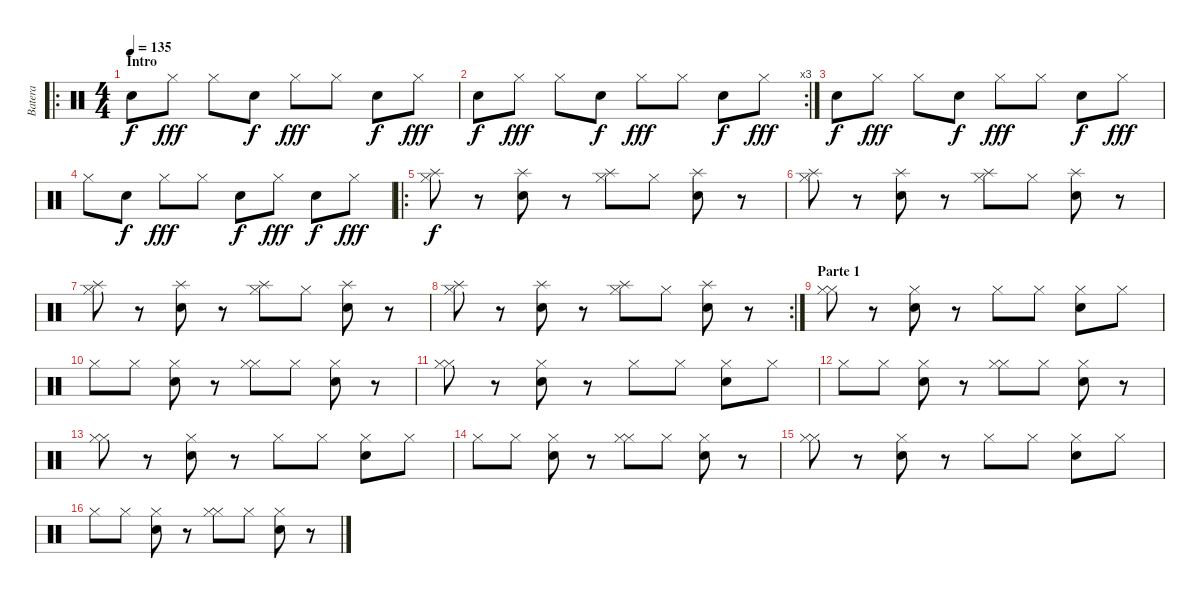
\track ("Batera" "Batera") {instrument percussion}
\staff {score}
\articulation defaults
\ro
\ts (4 4)
\section ("" "Intro")
\tempo 135
\clef neutral
\ks c "Electric Snare (hit)".8{dy f} "Hi-Hat (closed)".8{dy fff} "Hi-Hat (closed)".8 "Electric Snare (hit)".8{dy f} "Hi-Hat (closed)".8{dy fff} "Hi-Hat (closed)".8 "Electric Snare (hit)".8{dy f} "Hi-Hat (closed)".8{dy fff}
|
\rc 3 "Electric Snare (hit)".8{dy f} "Hi-Hat (closed)".8{dy fff} "Hi-Hat (closed)".8 "Electric Snare (hit)".8{dy f} "Hi-Hat (closed)".8{dy fff} "Hi-Hat (closed)".8 "Electric Snare (hit)".8{dy f} "Hi-Hat (closed)".8{dy fff}
|
"Electric Snare (hit)".8{dy f} "Hi-Hat (closed)".8{dy fff} "Hi-Hat (closed)".8 "Electric Snare (hit)".8{dy f} "Hi-Hat (closed)".8{dy fff} "Hi-Hat (closed)".8 "Electric Snare (hit)".8{dy f} "Hi-Hat (closed)".8{dy fff} |
"Hi-Hat (closed)".8 "Electric Snare (hit)".8{dy f} "Hi-Hat (closed)".8{dy fff} "Hi-Hat (closed)".8 "Electric Snare (hit)".8{dy f} "Hi-Hat (closed)".8{dy fff} "Electric Snare (hit)".8{dy f} "Hi-Hat (closed)".8{dy fff} |
\ro
("Splash (hit)" "Hi-Hat (closed)").8{dy f} r.8 ("Splash (hit)" "Electric Snare (hit)").8 r.8 ("Splash (hit)" "Hi-Hat (closed)").8 "Hi-Hat (closed)".8 ("Splash (hit)" "Electric Snare (hit)").8 r.8 |
("Splash (hit)" "Hi-Hat (closed)").8 r.8 ("Splash (hit)" "Electric Snare (hit)").8 r.8 ("Splash (hit)" "Hi-Hat (closed)").8 "Hi-Hat (closed)".8 ("Splash (hit)" "Electric Snare (hit)").8 r.8 |
("Splash (hit)" "Hi-Hat (closed)").8 r.8 ("Splash (hit)" "Electric Snare (hit)").8 r.8 ("Splash (hit)" "Hi-Hat (closed)").8 "Hi-Hat (closed)".8 ("Splash (hit)" "Electric Snare (hit)").8 r.8 |
\rc 2
("Splash (hit)" "Hi-Hat (closed)").8 r.8 ("Splash (hit)" "Electric Snare (hit)").8 r.8 ("Splash (hit)" "Hi-Hat (closed)").8 "Hi-Hat (closed)".8 ("Splash (hit)" "Electric Snare (hit)").8 r.8 |
\section ("" "Parte 1")
("Hi-Hat (closed)" "Hi-Hat (closed)").8 r.8 ("Hi-Hat (closed)" "Electric Snare (hit)").8 r.8 "Hi-Hat (closed)".8 "Hi-Hat (closed)".8 ("Hi-Hat (closed)" "Electric Snare (hit)").8 "Hi-Hat (closed)".8 |
"Hi-Hat (closed)".8 "Hi-Hat (closed)".8 ("Hi-Hat (closed)" "Electric Snare (hit)").8 r.8 ("Hi-Hat (closed)" "Hi-Hat (closed)").8 "Hi-Hat (closed)".8 ("Hi-Hat (closed)" "Electric Snare (hit)").8 r.8 |
("Hi-Hat (closed)" "Hi-Hat (closed)").8 r.8 ("Hi-Hat (closed)" "Electric Snare (hit)").8 r.8 "Hi-Hat (closed)".8 "Hi-Hat (closed)".8 ("Hi-Hat (closed)" "Electric Snare (hit)").8 "Hi-Hat (closed)".8 |
"Hi-Hat (closed)".8 "Hi-Hat (closed)".8 ("Hi-Hat (closed)" "Electric Snare (hit)").8 r.8 ("Hi-Hat (closed)" "Hi-Hat (closed)").8 "Hi-Hat (closed)".8 ("Hi-Hat (closed)" "Electric Snare (hit)").8 r.8 |
("Hi-Hat (closed)" "Hi-Hat (closed)").8 r.8 ("Hi-Hat (closed)" "Electric Snare (hit)").8 r.8 "Hi-Hat (closed)".8 "Hi-Hat (closed)".8 ("Hi-Hat (closed)" "Electric Snare (hit)").8 "Hi-Hat (closed)".8 |
"Hi-Hat (closed)".8 "Hi-Hat (closed)".8 ("Hi-Hat (closed)" "Electric Snare (hit)").8 r.8 ("Hi-Hat (closed)" "Hi-Hat (closed)").8 "Hi-Hat (closed)".8 ("Hi-Hat (closed)" "Electric Snare (hit)").8 r.8 |
("Hi-Hat (closed)" "Hi-Hat (closed)").8 r.8 ("Hi-Hat (closed)" "Electric Snare (hit)").8 r.8 "Hi-Hat (closed)".8 "Hi-Hat (closed)".8 ("Hi-Hat (closed)" "Electric Snare (hit)").8 "Hi-Hat (closed)".8 |
"Hi-Hat (closed)".8 "Hi-Hat (closed)".8 ("Hi-Hat (closed)" "Electric Snare (hit)").8 r.8 ("Hi-Hat (closed)" "Hi-Hat (closed)").8 "Hi-Hat (closed)".8 ("Hi-Hat (closed)" "Electric Snare (hit)").8 r.8
